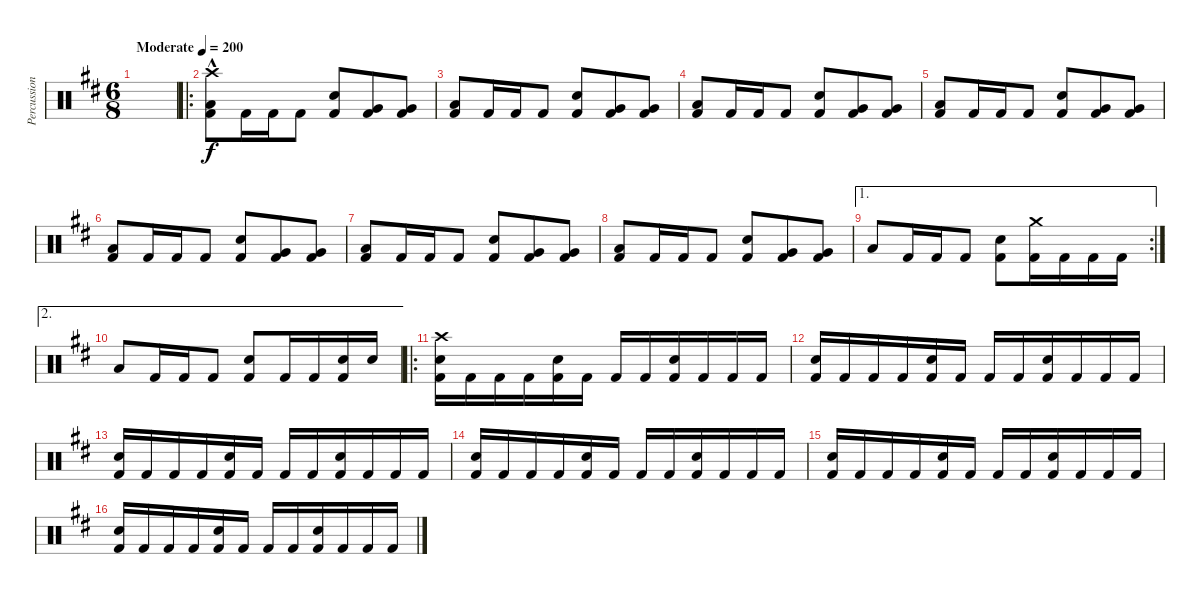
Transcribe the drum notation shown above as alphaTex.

\track ("Percussion" "Percussion") {instrument percussion}
\staff {score}
\articulation defaults
\ts (6 8)
\tempo (200 "Moderate")
\clef neutral
\ks d
|
\ro
("Crash high (hit)"{hac} "Low Floor Tom (hit)" "Kick (hit) 2").8 "Kick (hit) 2".16{dy f} "Kick (hit) 2".16 "Kick (hit) 2".8 ("Snare (hit) 2" "Kick (hit) 2").8 ("Very Low Tom (hit)" "Kick (hit) 2").8 ("Very Low Tom (hit)" "Kick (hit) 2").8 |
("Low Floor Tom (hit)" "Kick (hit) 2").8 "Kick (hit) 2".16 "Kick (hit) 2".16 "Kick (hit) 2".8 ("Snare (hit) 2" "Kick (hit) 2").8 ("Very Low Tom (hit)" "Kick (hit) 2").8 ("Very Low Tom (hit)" "Kick (hit) 2").8 |
("Low Floor Tom (hit)" "Kick (hit) 2").8 "Kick (hit) 2".16 "Kick (hit) 2".16 "Kick (hit) 2".8 ("Snare (hit) 2" "Kick (hit) 2").8 ("Very Low Tom (hit)" "Kick (hit) 2").8 ("Very Low Tom (hit)" "Kick (hit) 2").8 |
("Low Floor Tom (hit)" "Kick (hit) 2").8 "Kick (hit) 2".16 "Kick (hit) 2".16 "Kick (hit) 2".8 ("Snare (hit) 2" "Kick (hit) 2").8 ("Very Low Tom (hit)" "Kick (hit) 2").8 ("Very Low Tom (hit)" "Kick (hit) 2").8 |
("Low Floor Tom (hit)" "Kick (hit) 2").8 "Kick (hit) 2".16 "Kick (hit) 2".16 "Kick (hit) 2".8 ("Snare (hit) 2" "Kick (hit) 2").8 ("Very Low Tom (hit)" "Kick (hit) 2").8 ("Very Low Tom (hit)" "Kick (hit) 2").8 |
("Low Floor Tom (hit)" "Kick (hit) 2").8 "Kick (hit) 2".16 "Kick (hit) 2".16 "Kick (hit) 2".8 ("Snare (hit) 2" "Kick (hit) 2").8 ("Very Low Tom (hit)" "Kick (hit) 2").8 ("Very Low Tom (hit)" "Kick (hit) 2").8 |
("Low Floor Tom (hit)" "Kick (hit) 2").8 "Kick (hit) 2".16 "Kick (hit) 2".16 "Kick (hit) 2".8 ("Snare (hit) 2" "Kick (hit) 2").8 ("Very Low Tom (hit)" "Kick (hit) 2").8 ("Very Low Tom (hit)" "Kick (hit) 2").8 |
\ae 1
\rc 2 "Low Floor Tom (hit)".8 "Kick (hit) 2".16 "Kick (hit) 2".16 "Kick (hit) 2".8
("Snare (hit) 2" "Kick (hit) 2").8 ("Crash medium (hit)" "Kick (hit) 2").16 "Kick (hit) 2".16 "Kick (hit) 2".16 "Kick (hit) 2".16 |
\ae 2 "Low Floor Tom (hit)".8 "Kick (hit) 2".16 "Kick (hit) 2".16 "Kick (hit) 2".8
("Snare (hit) 2" "Kick (hit) 2").8 "Kick (hit) 2".16 "Kick (hit) 2".16 ("Snare (hit) 2" "Kick (hit) 2").16 "Snare (hit) 2".16 |
\ro
("Crash high (hit)" "Snare (hit) 2" "Kick (hit) 2").16 "Kick (hit) 2".16 "Kick (hit) 2".16 "Kick (hit) 2".16 ("Snare (hit) 2" "Kick (hit) 2").16 "Kick (hit) 2".16 "Kick (hit) 2".16 "Kick (hit) 2".16 ("Snare (hit) 2" "Kick (hit) 2").16 "Kick (hit) 2".16 "Kick (hit) 2".16 "Kick (hit) 2".16 |
("Snare (hit) 2" "Kick (hit) 2").16 "Kick (hit) 2".16 "Kick (hit) 2".16 "Kick (hit) 2".16 ("Snare (hit) 2" "Kick (hit) 2").16 "Kick (hit) 2".16 "Kick (hit) 2".16 "Kick (hit) 2".16 ("Snare (hit) 2" "Kick (hit) 2").16 "Kick (hit) 2".16 "Kick (hit) 2".16 "Kick (hit) 2".16 |
("Snare (hit) 2" "Kick (hit) 2").16 "Kick (hit) 2".16 "Kick (hit) 2".16 "Kick (hit) 2".16 ("Snare (hit) 2" "Kick (hit) 2").16 "Kick (hit) 2".16 "Kick (hit) 2".16 "Kick (hit) 2".16 ("Snare (hit) 2" "Kick (hit) 2").16 "Kick (hit) 2".16 "Kick (hit) 2".16 "Kick (hit) 2".16 |
("Snare (hit) 2" "Kick (hit) 2").16 "Kick (hit) 2".16 "Kick (hit) 2".16 "Kick (hit) 2".16 ("Snare (hit) 2" "Kick (hit) 2").16 "Kick (hit) 2".16 "Kick (hit) 2".16 "Kick (hit) 2".16 ("Snare (hit) 2" "Kick (hit) 2").16 "Kick (hit) 2".16 "Kick (hit) 2".16 "Kick (hit) 2".16 |
("Snare (hit) 2" "Kick (hit) 2").16 "Kick (hit) 2".16 "Kick (hit) 2".16 "Kick (hit) 2".16 ("Snare (hit) 2" "Kick (hit) 2").16 "Kick (hit) 2".16 "Kick (hit) 2".16 "Kick (hit) 2".16 ("Snare (hit) 2" "Kick (hit) 2").16 "Kick (hit) 2".16 "Kick (hit) 2".16 "Kick (hit) 2".16 |
("Snare (hit) 2" "Kick (hit) 2").16 "Kick (hit) 2".16 "Kick (hit) 2".16 "Kick (hit) 2".16 ("Snare (hit) 2" "Kick (hit) 2").16 "Kick (hit) 2".16 "Kick (hit) 2".16 "Kick (hit) 2".16 ("Snare (hit) 2" "Kick (hit) 2").16 "Kick (hit) 2".16 "Kick (hit) 2".16 "Kick (hit) 2".16
